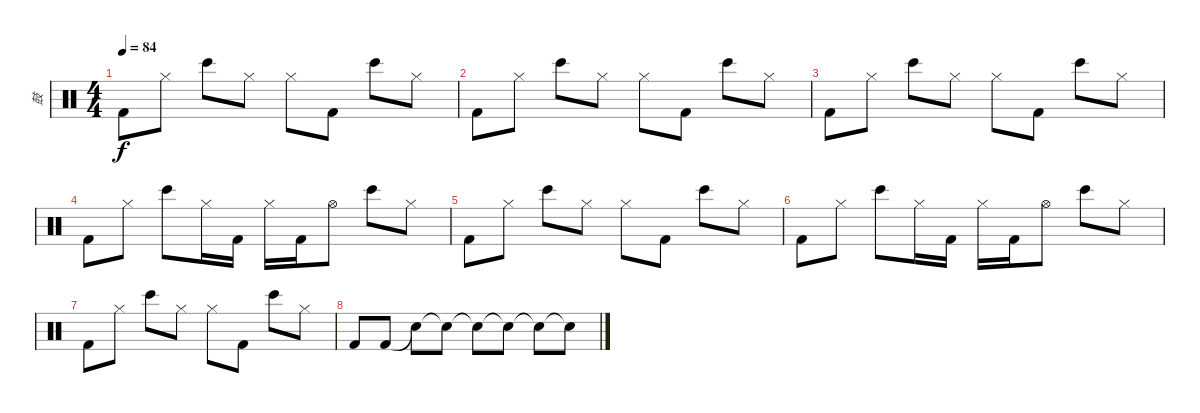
\track ("鼓" "鼓") {instrument percussion}
\staff {score}
\articulation defaults
\ts (4 4)
\tempo 84
\clef neutral
\ks c "Kick (hit) 2".8{dy f} "Hi-Hat (closed)".8 "Bongo High (hit)".8 "Hi-Hat (closed)".8 "Hi-Hat (closed)".8 "Kick (hit) 2".8 "Bongo High (hit)".8 "Hi-Hat (closed)".8
|
"Kick (hit) 2".8 "Hi-Hat (closed)".8 "Bongo High (hit)".8 "Hi-Hat (closed)".8 "Hi-Hat (closed)".8 "Kick (hit) 2".8 "Bongo High (hit)".8 "Hi-Hat (closed)".8 |
"Kick (hit) 2".8 "Hi-Hat (closed)".8 "Bongo High (hit)".8 "Hi-Hat (closed)".8 "Hi-Hat (closed)".8 "Kick (hit) 2".8 "Bongo High (hit)".8 "Hi-Hat (closed)".8 |
"Kick (hit) 2".8 "Hi-Hat (closed)".8 "Bongo High (hit)".8 "Hi-Hat (closed)".16 "Kick (hit) 2".16 "Hi-Hat (closed)".16 "Kick (hit) 2".16 "Hi-Hat (open)".8 "Bongo High (hit)".8 "Hi-Hat (closed)".8 |
"Kick (hit) 2".8 "Hi-Hat (closed)".8 "Bongo High (hit)".8 "Hi-Hat (closed)".8 "Hi-Hat (closed)".8 "Kick (hit) 2".8 "Bongo High (hit)".8 "Hi-Hat (closed)".8 |
"Kick (hit) 2".8 "Hi-Hat (closed)".8 "Bongo High (hit)".8 "Hi-Hat (closed)".16 "Kick (hit) 2".16 "Hi-Hat (closed)".16 "Kick (hit) 2".16 "Hi-Hat (open)".8 "Bongo High (hit)".8 "Hi-Hat (closed)".8 |
"Kick (hit) 2".8 "Hi-Hat (closed)".8 "Bongo High (hit)".8 "Hi-Hat (closed)".8 "Hi-Hat (closed)".8 "Kick (hit) 2".8 "Bongo High (hit)".8 "Hi-Hat (closed)".8 |
"Kick (hit) 2".8 "Kick (hit) 2".8 "Snare (hit)"{t}.8 "Snare (hit)"{t}.8 "Snare (hit)"{t}.8 "Snare (hit)"{t}.8 "Snare (hit)"{t}.8 "Snare (hit)"{t}.8
